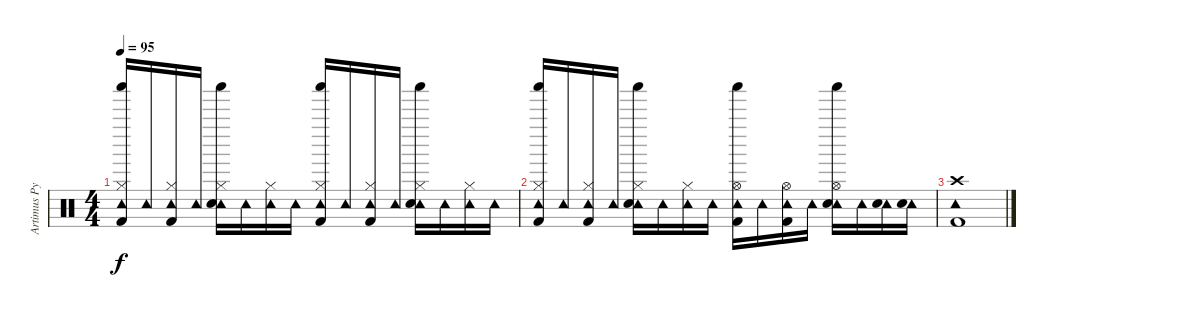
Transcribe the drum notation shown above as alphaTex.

\track ("Artimus Pyle" "Artimus Py") {instrument percussion}
\staff {score}
\articulation defaults
\ts (4 4)
\tempo 95
\clef neutral
\ks c
("Tambourine (hit)" "Shaker (hit)" "Hi-Hat (closed)" "Kick (hit) 2").16{dy f} "Tambourine (hit)".16 ("Tambourine (hit)" "Hi-Hat (closed)" "Kick (hit) 2").16 "Tambourine (hit)".16 ("Tambourine (hit)" "Shaker (hit)" "Hi-Hat (closed)" "Electric Snare (hit)").16 "Tambourine (hit)".16 ("Tambourine (hit)" "Hi-Hat (closed)").16 "Tambourine (hit)".16 ("Tambourine (hit)" "Shaker (hit)" "Hi-Hat (closed)" "Kick (hit) 2").16 "Tambourine (hit)".16 ("Tambourine (hit)" "Hi-Hat (closed)" "Kick (hit) 2").16 "Tambourine (hit)".16 ("Tambourine (hit)" "Shaker (hit)" "Hi-Hat (closed)" "Electric Snare (hit)").16 "Tambourine (hit)".16 ("Tambourine (hit)" "Hi-Hat (closed)").16 "Tambourine (hit)".16 |
("Tambourine (hit)" "Shaker (hit)" "Hi-Hat (closed)" "Kick (hit) 2").16 "Tambourine (hit)".16 ("Tambourine (hit)" "Hi-Hat (closed)" "Kick (hit) 2").16 "Tambourine (hit)".16 ("Tambourine (hit)" "Shaker (hit)" "Hi-Hat (closed)" "Electric Snare (hit)").16 "Tambourine (hit)".16 ("Tambourine (hit)" "Hi-Hat (closed)").16 "Tambourine (hit)".16 ("Tambourine (hit)" "Shaker (hit)" "Hi-Hat (open)" "Kick (hit) 2").16 "Tambourine (hit)".16 ("Tambourine (hit)" "Hi-Hat (open)" "Kick (hit) 2").16 "Tambourine (hit)".16 ("Tambourine (hit)" "Shaker (hit)" "Hi-Hat (open)" "Electric Snare (hit)").16 "Tambourine (hit)".16 ("Tambourine (hit)" "Electric Snare (hit)").16 ("Tambourine (hit)" "Electric Snare (hit)").16 |
("Crash high (hit)" "Tambourine (hit)" "Kick (hit) 2").1
